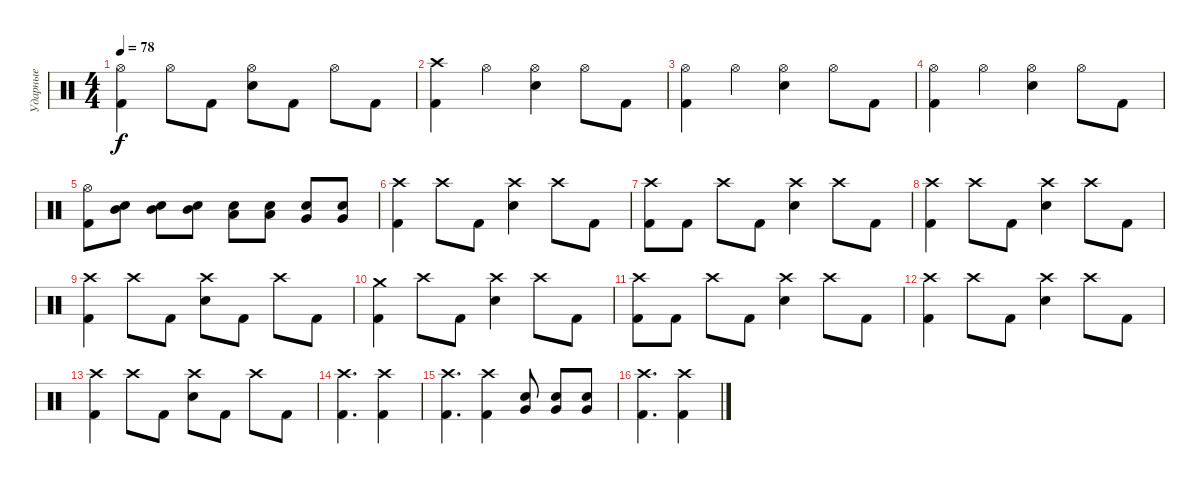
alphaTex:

\track ("Ударные" "Ударные") {instrument percussion}
\staff {score}
\articulation defaults
\ts (4 4)
\tempo 78
\clef neutral
\ks c
("Hi-Hat (open)" "Kick (hit) 2").4{dy f} "Hi-Hat (open)".8 "Kick (hit) 2".8 ("Hi-Hat (open)" "Snare (hit) 2").8 "Kick (hit) 2".8 "Hi-Hat (open)".8 "Kick (hit) 2".8 |
("Crash high (hit)" "Kick (hit) 2").4 "Hi-Hat (open)".4 ("Hi-Hat (open)" "Snare (hit) 2").4 "Hi-Hat (open)".8 "Kick (hit) 2".8 |
("Hi-Hat (open)" "Kick (hit) 2").4 "Hi-Hat (open)".4 ("Hi-Hat (open)" "Snare (hit) 2").4 "Hi-Hat (open)".8 "Kick (hit) 2".8 |
("Hi-Hat (open)" "Kick (hit) 2").4 "Hi-Hat (open)".4 ("Hi-Hat (open)" "Snare (hit) 2").4 "Hi-Hat (open)".8 "Kick (hit) 2".8 |
("Hi-Hat (open)" "Kick (hit) 2").8 ("Mid Tom (hit)" "Snare (hit) 2").8 ("Mid Tom (hit)" "Snare (hit) 2").8 ("Mid Tom (hit)" "Snare (hit) 2").8 ("Low Tom (hit)" "Snare (hit) 2").8 ("Low Tom (hit)" "Snare (hit) 2").8 ("Very Low Tom (hit)" "Snare (hit) 2").8 ("Very Low Tom (hit)" "Snare (hit) 2").8 |
("Crash high (hit)" "Kick (hit) 2").4 "Crash high (hit)".8 "Kick (hit) 2".8 ("Crash high (hit)" "Snare (hit) 2").4 "Crash high (hit)".8 "Kick (hit) 2".8 |
("Crash high (hit)" "Kick (hit) 2").8 "Kick (hit) 2".8 "Crash high (hit)".8 "Kick (hit) 2".8 ("Crash high (hit)" "Snare (hit) 2").4 "Crash high (hit)".8 "Kick (hit) 2".8 |
("Crash high (hit)" "Kick (hit) 2").4 "Crash high (hit)".8 "Kick (hit) 2".8 ("Crash high (hit)" "Snare (hit) 2").4 "Crash high (hit)".8 "Kick (hit) 2".8 |
("Crash high (hit)" "Kick (hit) 2").4 "Crash high (hit)".8 "Kick (hit) 2".8 ("Crash high (hit)" "Snare (hit) 2").8 "Kick (hit) 2".8 "Crash high (hit)".8 "Kick (hit) 2".8 |
("Crash medium (hit)" "Kick (hit) 2").4 "Crash high (hit)".8 "Kick (hit) 2".8 ("Crash high (hit)" "Snare (hit) 2").4 "Crash high (hit)".8 "Kick (hit) 2".8 |
("Crash high (hit)" "Kick (hit) 2").8 "Kick (hit) 2".8 "Crash high (hit)".8 "Kick (hit) 2".8 ("Crash high (hit)" "Snare (hit) 2").4 "Crash high (hit)".8 "Kick (hit) 2".8 |
("Crash high (hit)" "Kick (hit) 2").4 "Crash high (hit)".8 "Kick (hit) 2".8 ("Crash high (hit)" "Snare (hit) 2").4 "Crash high (hit)".8 "Kick (hit) 2".8 |
("Crash high (hit)" "Kick (hit) 2").4 "Crash high (hit)".8 "Kick (hit) 2".8 ("Crash high (hit)" "Snare (hit) 2").8 "Kick (hit) 2".8 "Crash high (hit)".8 "Kick (hit) 2".8 |
("Crash high (hit)" "Kick (hit) 2").4{d} ("Crash high (hit)" "Kick (hit) 2").4 |
("Crash high (hit)" "Kick (hit) 2").4{d} ("Crash high (hit)" "Kick (hit) 2").4 ("Very Low Tom (hit)" "Snare (hit) 2").8 ("Very Low Tom (hit)" "Snare (hit) 2").8 ("Very Low Tom (hit)" "Snare (hit) 2").8 |
("Crash high (hit)" "Kick (hit) 2").4{d} ("Crash high (hit)" "Kick (hit) 2").4
